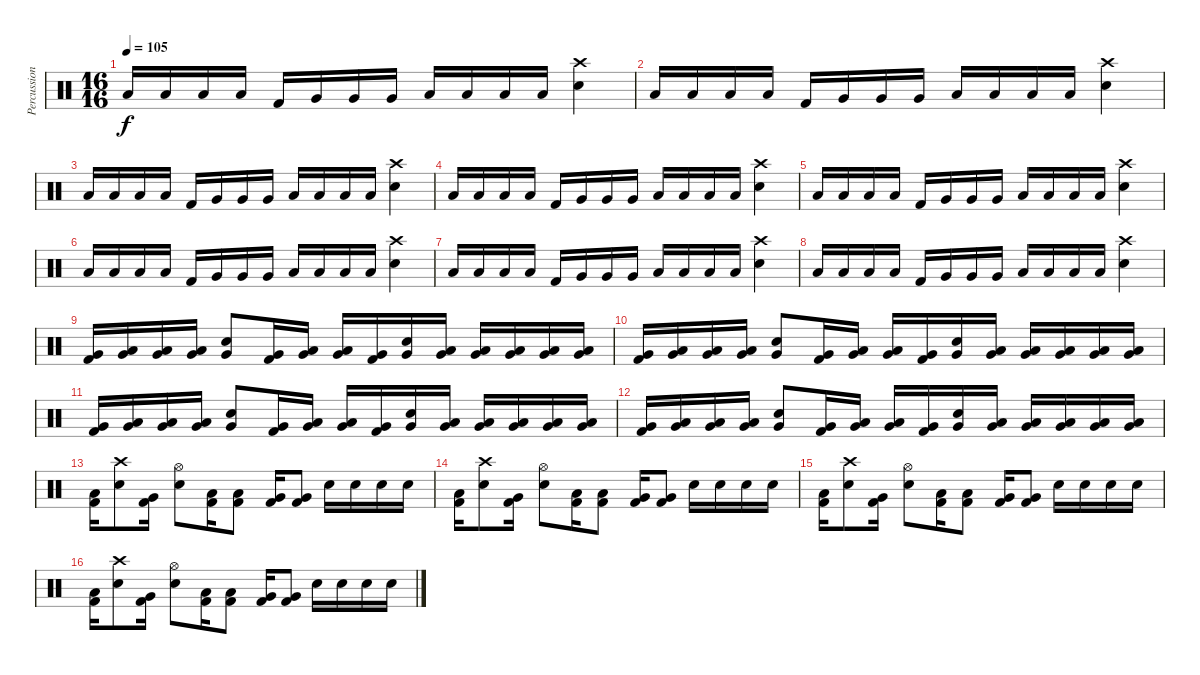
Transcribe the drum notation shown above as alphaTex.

\track ("Percussion" "Percussion") {instrument percussion}
\staff {score}
\articulation defaults
\ts (16 16)
\tempo 105
\clef neutral
\ks c "Low Floor Tom (hit)".16{dy f} "Low Floor Tom (hit)".16 "Low Floor Tom (hit)".16 "Low Floor Tom (hit)".16 "Kick (hit) 2".16 "Very Low Tom (hit)".16 "Very Low Tom (hit)".16 "Very Low Tom (hit)".16 "Low Floor Tom (hit)".16 "Low Floor Tom (hit)".16 "Low Floor Tom (hit)".16 "Low Floor Tom (hit)".16
("Snare (hit) 2" "Crash high (hit)").4 |
"Low Floor Tom (hit)".16 "Low Floor Tom (hit)".16 "Low Floor Tom (hit)".16 "Low Floor Tom (hit)".16 "Kick (hit) 2".16 "Very Low Tom (hit)".16 "Very Low Tom (hit)".16 "Very Low Tom (hit)".16 "Low Floor Tom (hit)".16 "Low Floor Tom (hit)".16 "Low Floor Tom (hit)".16 "Low Floor Tom (hit)".16 ("Snare (hit) 2" "Crash high (hit)").4 |
"Low Floor Tom (hit)".16 "Low Floor Tom (hit)".16 "Low Floor Tom (hit)".16 "Low Floor Tom (hit)".16 "Kick (hit) 2".16 "Very Low Tom (hit)".16 "Very Low Tom (hit)".16 "Very Low Tom (hit)".16 "Low Floor Tom (hit)".16 "Low Floor Tom (hit)".16 "Low Floor Tom (hit)".16 "Low Floor Tom (hit)".16 ("Snare (hit) 2" "Crash high (hit)").4 |
"Low Floor Tom (hit)".16 "Low Floor Tom (hit)".16 "Low Floor Tom (hit)".16 "Low Floor Tom (hit)".16 "Kick (hit) 2".16 "Very Low Tom (hit)".16 "Very Low Tom (hit)".16 "Very Low Tom (hit)".16 "Low Floor Tom (hit)".16 "Low Floor Tom (hit)".16 "Low Floor Tom (hit)".16 "Low Floor Tom (hit)".16 ("Snare (hit) 2" "Crash high (hit)").4 |
"Low Floor Tom (hit)".16 "Low Floor Tom (hit)".16 "Low Floor Tom (hit)".16 "Low Floor Tom (hit)".16 "Kick (hit) 2".16 "Very Low Tom (hit)".16 "Very Low Tom (hit)".16 "Very Low Tom (hit)".16 "Low Floor Tom (hit)".16 "Low Floor Tom (hit)".16 "Low Floor Tom (hit)".16 "Low Floor Tom (hit)".16 ("Snare (hit) 2" "Crash high (hit)").4 |
"Low Floor Tom (hit)".16 "Low Floor Tom (hit)".16 "Low Floor Tom (hit)".16 "Low Floor Tom (hit)".16 "Kick (hit) 2".16 "Very Low Tom (hit)".16 "Very Low Tom (hit)".16 "Very Low Tom (hit)".16 "Low Floor Tom (hit)".16 "Low Floor Tom (hit)".16 "Low Floor Tom (hit)".16 "Low Floor Tom (hit)".16 ("Snare (hit) 2" "Crash high (hit)").4 |
"Low Floor Tom (hit)".16 "Low Floor Tom (hit)".16 "Low Floor Tom (hit)".16 "Low Floor Tom (hit)".16 "Kick (hit) 2".16 "Very Low Tom (hit)".16 "Very Low Tom (hit)".16 "Very Low Tom (hit)".16 "Low Floor Tom (hit)".16 "Low Floor Tom (hit)".16 "Low Floor Tom (hit)".16 "Low Floor Tom (hit)".16 ("Snare (hit) 2" "Crash high (hit)").4 |
"Low Floor Tom (hit)".16 "Low Floor Tom (hit)".16 "Low Floor Tom (hit)".16 "Low Floor Tom (hit)".16 "Kick (hit) 2".16 "Very Low Tom (hit)".16 "Very Low Tom (hit)".16 "Very Low Tom (hit)".16 "Low Floor Tom (hit)".16 "Low Floor Tom (hit)".16 "Low Floor Tom (hit)".16 "Low Floor Tom (hit)".16 ("Snare (hit) 2" "Crash high (hit)").4 |
("Kick (hit) 2" "Very Low Tom (hit)").16 ("Low Floor Tom (hit)" "Very Low Tom (hit)").16 ("Low Floor Tom (hit)" "Very Low Tom (hit)").16 ("Low Floor Tom (hit)" "Very Low Tom (hit)").16 ("Snare (hit) 2" "Very Low Tom (hit)").8 ("Kick (hit) 2" "Very Low Tom (hit)").16 ("Low Floor Tom (hit)" "Very Low Tom (hit)").16 ("Low Floor Tom (hit)" "Very Low Tom (hit)").16 ("Kick (hit) 2" "Very Low Tom (hit)").16 ("Snare (hit) 2" "Very Low Tom (hit)").16 ("Low Floor Tom (hit)" "Very Low Tom (hit)").16 ("Low Floor Tom (hit)" "Very Low Tom (hit)").16 ("Low Floor Tom (hit)" "Very Low Tom (hit)").16 ("Low Floor Tom (hit)" "Very Low Tom (hit)").16 ("Low Floor Tom (hit)" "Very Low Tom (hit)").16 |
("Kick (hit) 2" "Very Low Tom (hit)").16 ("Low Floor Tom (hit)" "Very Low Tom (hit)").16 ("Low Floor Tom (hit)" "Very Low Tom (hit)").16 ("Low Floor Tom (hit)" "Very Low Tom (hit)").16 ("Snare (hit) 2" "Very Low Tom (hit)").8 ("Kick (hit) 2" "Very Low Tom (hit)").16 ("Low Floor Tom (hit)" "Very Low Tom (hit)").16 ("Low Floor Tom (hit)" "Very Low Tom (hit)").16 ("Kick (hit) 2" "Very Low Tom (hit)").16 ("Snare (hit) 2" "Very Low Tom (hit)").16 ("Low Floor Tom (hit)" "Very Low Tom (hit)").16 ("Low Floor Tom (hit)" "Very Low Tom (hit)").16 ("Low Floor Tom (hit)" "Very Low Tom (hit)").16 ("Low Floor Tom (hit)" "Very Low Tom (hit)").16 ("Low Floor Tom (hit)" "Very Low Tom (hit)").16 |
("Kick (hit) 2" "Very Low Tom (hit)").16 ("Low Floor Tom (hit)" "Very Low Tom (hit)").16 ("Low Floor Tom (hit)" "Very Low Tom (hit)").16 ("Low Floor Tom (hit)" "Very Low Tom (hit)").16 ("Snare (hit) 2" "Very Low Tom (hit)").8 ("Kick (hit) 2" "Very Low Tom (hit)").16 ("Low Floor Tom (hit)" "Very Low Tom (hit)").16 ("Low Floor Tom (hit)" "Very Low Tom (hit)").16 ("Kick (hit) 2" "Very Low Tom (hit)").16 ("Snare (hit) 2" "Very Low Tom (hit)").16 ("Low Floor Tom (hit)" "Very Low Tom (hit)").16 ("Low Floor Tom (hit)" "Very Low Tom (hit)").16 ("Low Floor Tom (hit)" "Very Low Tom (hit)").16 ("Low Floor Tom (hit)" "Very Low Tom (hit)").16 ("Low Floor Tom (hit)" "Very Low Tom (hit)").16 |
("Kick (hit) 2" "Very Low Tom (hit)").16 ("Low Floor Tom (hit)" "Very Low Tom (hit)").16 ("Low Floor Tom (hit)" "Very Low Tom (hit)").16 ("Low Floor Tom (hit)" "Very Low Tom (hit)").16 ("Snare (hit) 2" "Very Low Tom (hit)").8 ("Kick (hit) 2" "Very Low Tom (hit)").16 ("Low Floor Tom (hit)" "Very Low Tom (hit)").16 ("Low Floor Tom (hit)" "Very Low Tom (hit)").16 ("Kick (hit) 2" "Very Low Tom (hit)").16 ("Snare (hit) 2" "Very Low Tom (hit)").16 ("Low Floor Tom (hit)" "Very Low Tom (hit)").16 ("Low Floor Tom (hit)" "Very Low Tom (hit)").16 ("Low Floor Tom (hit)" "Very Low Tom (hit)").16 ("Low Floor Tom (hit)" "Very Low Tom (hit)").16 ("Low Floor Tom (hit)" "Very Low Tom (hit)").16 |
("Kick (hit) 2" "Low Floor Tom (hit)").16 ("Snare (hit) 2" "Crash high (hit)").8 ("Kick (hit) 2" "Very Low Tom (hit)").16 ("Electric Snare (hit)" "Hi-Hat (open)").8 ("Kick (hit) 2" "Low Floor Tom (hit)").16 ("Kick (hit) 2" "Low Floor Tom (hit)").8 ("Kick (hit) 2" "Very Low Tom (hit)").16 ("Kick (hit) 2" "Very Low Tom (hit)").8 "Snare (hit) 2".16 "Snare (hit) 2".16 "Electric Snare (hit)".16 "Electric Snare (hit)".16 |
("Kick (hit) 2" "Low Floor Tom (hit)").16 ("Snare (hit) 2" "Crash high (hit)").8 ("Kick (hit) 2" "Very Low Tom (hit)").16 ("Electric Snare (hit)" "Hi-Hat (open)").8 ("Kick (hit) 2" "Low Floor Tom (hit)").16 ("Kick (hit) 2" "Low Floor Tom (hit)").8 ("Kick (hit) 2" "Very Low Tom (hit)").16 ("Kick (hit) 2" "Very Low Tom (hit)").8 "Snare (hit) 2".16 "Snare (hit) 2".16 "Electric Snare (hit)".16 "Electric Snare (hit)".16 |
("Kick (hit) 2" "Low Floor Tom (hit)").16 ("Snare (hit) 2" "Crash high (hit)").8 ("Kick (hit) 2" "Very Low Tom (hit)").16 ("Electric Snare (hit)" "Hi-Hat (open)").8 ("Kick (hit) 2" "Low Floor Tom (hit)").16 ("Kick (hit) 2" "Low Floor Tom (hit)").8 ("Kick (hit) 2" "Very Low Tom (hit)").16 ("Kick (hit) 2" "Very Low Tom (hit)").8 "Snare (hit) 2".16 "Snare (hit) 2".16 "Electric Snare (hit)".16 "Electric Snare (hit)".16 |
("Kick (hit) 2" "Low Floor Tom (hit)").16 ("Snare (hit) 2" "Crash high (hit)").8 ("Kick (hit) 2" "Very Low Tom (hit)").16 ("Electric Snare (hit)" "Hi-Hat (open)").8 ("Kick (hit) 2" "Low Floor Tom (hit)").16 ("Kick (hit) 2" "Low Floor Tom (hit)").8 ("Kick (hit) 2" "Very Low Tom (hit)").16 ("Kick (hit) 2" "Very Low Tom (hit)").8 "Snare (hit) 2".16 "Snare (hit) 2".16 "Electric Snare (hit)".16 "Electric Snare (hit)".16
